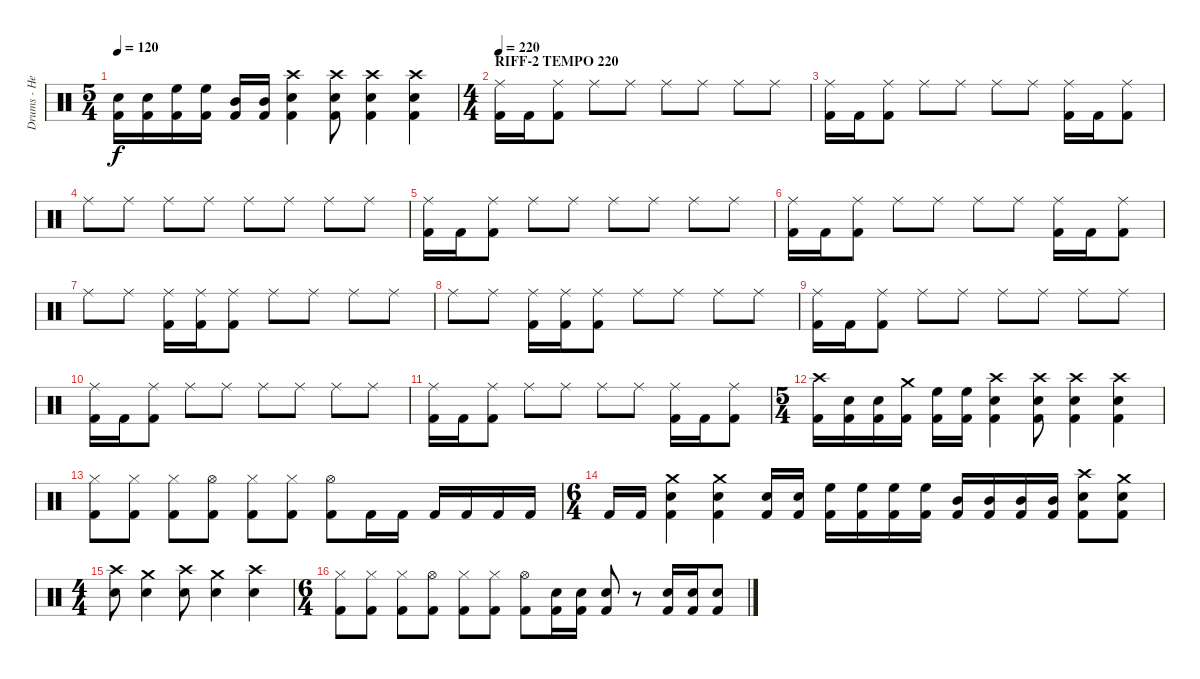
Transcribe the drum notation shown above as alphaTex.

\track ("Drums - Hellhammer" "Drums - He") {instrument percussion}
\staff {score}
\articulation defaults
\ts (5 4)
\tempo 120
\clef neutral
\ks c
("Electric Snare (hit)" "Kick (hit) 2").16{dy f} ("Electric Snare (hit)" "Kick (hit) 2").16 ("High Floor Tom (hit)" "Kick (hit) 2").16 ("High Floor Tom (hit)" "Kick (hit) 2").16 ("Mid Tom (hit)" "Kick (hit) 2").16 ("Mid Tom (hit)" "Kick (hit) 2").16 ("Crash high (hit)" "Electric Snare (hit)" "Kick (hit) 2").4 ("Crash high (hit)" "Electric Snare (hit)" "Kick (hit) 2").8 ("Crash high (hit)" "Electric Snare (hit)" "Kick (hit) 2").4 ("Crash high (hit)" "Electric Snare (hit)" "Kick (hit) 2").4 |
\ts (4 4)
\section ("" "RIFF-2 TEMPO 220")
\tempo 220
("Ride (middle)" "Kick (hit) 2").16 "Kick (hit) 2".16 ("Ride (middle)" "Kick (hit) 2").8 "Ride (middle)".8 "Ride (middle)".8 "Ride (middle)".8 "Ride (middle)".8 "Ride (middle)".8 "Ride (middle)".8 |
("Ride (middle)" "Kick (hit) 2").16 "Kick (hit) 2".16 ("Ride (middle)" "Kick (hit) 2").8 "Ride (middle)".8 "Ride (middle)".8 "Ride (middle)".8 "Ride (middle)".8 ("Ride (middle)" "Kick (hit) 2").16 "Kick (hit) 2".16 ("Ride (middle)" "Kick (hit) 2").8 |
"Ride (middle)".8 "Ride (middle)".8 "Ride (middle)".8 "Ride (middle)".8 "Ride (middle)".8 "Ride (middle)".8 "Ride (middle)".8 "Ride (middle)".8 |
("Ride (middle)" "Kick (hit) 2").16 "Kick (hit) 2".16 ("Ride (middle)" "Kick (hit) 2").8 "Ride (middle)".8 "Ride (middle)".8 "Ride (middle)".8 "Ride (middle)".8 "Ride (middle)".8 "Ride (middle)".8 |
("Ride (middle)" "Kick (hit) 2").16 "Kick (hit) 2".16 ("Ride (middle)" "Kick (hit) 2").8 "Ride (middle)".8 "Ride (middle)".8 "Ride (middle)".8 "Ride (middle)".8 ("Ride (middle)" "Kick (hit) 2").16 "Kick (hit) 2".16 ("Ride (middle)" "Kick (hit) 2").8 |
"Ride (middle)".8 "Ride (middle)".8 ("Ride (middle)" "Kick (hit) 2").16 ("Ride (middle)" "Kick (hit) 2").16 ("Ride (middle)" "Kick (hit) 2").8 "Ride (middle)".8 "Ride (middle)".8 "Ride (middle)".8 "Ride (middle)".8 |
"Ride (middle)".8 "Ride (middle)".8 ("Ride (middle)" "Kick (hit) 2").16 ("Ride (middle)" "Kick (hit) 2").16 ("Ride (middle)" "Kick (hit) 2").8 "Ride (middle)".8 "Ride (middle)".8 "Ride (middle)".8 "Ride (middle)".8 |
("Ride (middle)" "Kick (hit) 2").16 "Kick (hit) 2".16 ("Ride (middle)" "Kick (hit) 2").8 "Ride (middle)".8 "Ride (middle)".8 "Ride (middle)".8 "Ride (middle)".8 "Ride (middle)".8 "Ride (middle)".8 |
("Ride (middle)" "Kick (hit) 2").16 "Kick (hit) 2".16 ("Ride (middle)" "Kick (hit) 2").8 "Ride (middle)".8 "Ride (middle)".8 "Ride (middle)".8 "Ride (middle)".8 "Ride (middle)".8 "Ride (middle)".8 |
("Ride (middle)" "Kick (hit) 2").16 "Kick (hit) 2".16 ("Ride (middle)" "Kick (hit) 2").8 "Ride (middle)".8 "Ride (middle)".8 "Ride (middle)".8 "Ride (middle)".8 ("Ride (middle)" "Kick (hit) 2").16 "Kick (hit) 2".16 ("Ride (middle)" "Kick (hit) 2").8 |
\ts (5 4)
("Crash high (hit)" "Kick (hit) 2").16 ("Electric Snare (hit)" "Kick (hit) 2").16 ("Electric Snare (hit)" "Kick (hit) 2").16 ("Crash medium (hit)" "Kick (hit) 2").16 ("High Floor Tom (hit)" "Kick (hit) 2").16 ("High Floor Tom (hit)" "Kick (hit) 2").16 ("Crash high (hit)" "Electric Snare (hit)" "Kick (hit) 2").4 ("Crash high (hit)" "Electric Snare (hit)" "Kick (hit) 2").8 ("Crash high (hit)" "Electric Snare (hit)" "Kick (hit) 2").4 ("Crash high (hit)" "Electric Snare (hit)" "Kick (hit) 2").4 |
("Hi-Hat (closed)" "Kick (hit) 2").8 ("Hi-Hat (closed)" "Kick (hit) 2").8 ("Hi-Hat (closed)" "Kick (hit) 2").8 ("Hi-Hat (open)" "Kick (hit) 2").8 ("Hi-Hat (closed)" "Kick (hit) 2").8 ("Hi-Hat (closed)" "Kick (hit) 2").8 ("Hi-Hat (open)" "Kick (hit) 2").8 "Kick (hit) 2".16 "Kick (hit) 2".16 "Kick (hit) 2".16 "Kick (hit) 2".16 "Kick (hit) 2".16 "Kick (hit) 2".16 |
\ts (6 4)
"Kick (hit) 2".16 "Kick (hit) 2".16 ("Crash medium (hit)" "Electric Snare (hit)" "Kick (hit) 2").4 ("Crash medium (hit)" "Electric Snare (hit)" "Kick (hit) 2").4 ("Electric Snare (hit)" "Kick (hit) 2").16 ("Electric Snare (hit)" "Kick (hit) 2").16 ("High Floor Tom (hit)" "Kick (hit) 2").16 ("High Floor Tom (hit)" "Kick (hit) 2").16 ("High Floor Tom (hit)" "Kick (hit) 2").16 ("High Floor Tom (hit)" "Kick (hit) 2").16 ("Mid Tom (hit)" "Kick (hit) 2").16 ("Mid Tom (hit)" "Kick (hit) 2").16 ("Mid Tom (hit)" "Kick (hit) 2").16 ("Mid Tom (hit)" "Kick (hit) 2").16 ("Crash high (hit)" "Electric Snare (hit)" "Kick (hit) 2").8 ("Crash medium (hit)" "Electric Snare (hit)" "Kick (hit) 2").8 |
\ts (4 4)
("Crash high (hit)" "Electric Snare (hit)").8 ("Crash medium (hit)" "Electric Snare (hit)").4 ("Crash high (hit)" "Electric Snare (hit)").8 ("Crash medium (hit)" "Electric Snare (hit)").4 ("Crash high (hit)" "Electric Snare (hit)").4 |
\ts (6 4)
("Hi-Hat (closed)" "Kick (hit) 2").8 ("Hi-Hat (closed)" "Kick (hit) 2").8 ("Hi-Hat (closed)" "Kick (hit) 2").8 ("Hi-Hat (open)" "Kick (hit) 2").8 ("Hi-Hat (closed)" "Kick (hit) 2").8 ("Hi-Hat (closed)" "Kick (hit) 2").8 ("Hi-Hat (open)" "Kick (hit) 2").8 ("Electric Snare (hit)" "Kick (hit) 2").16 ("Electric Snare (hit)" "Kick (hit) 2").16 ("Electric Snare (hit)" "Kick (hit) 2").8 r.8 ("Electric Snare (hit)" "Kick (hit) 2").16 ("Electric Snare (hit)" "Kick (hit) 2").16 ("Electric Snare (hit)" "Kick (hit) 2").8
